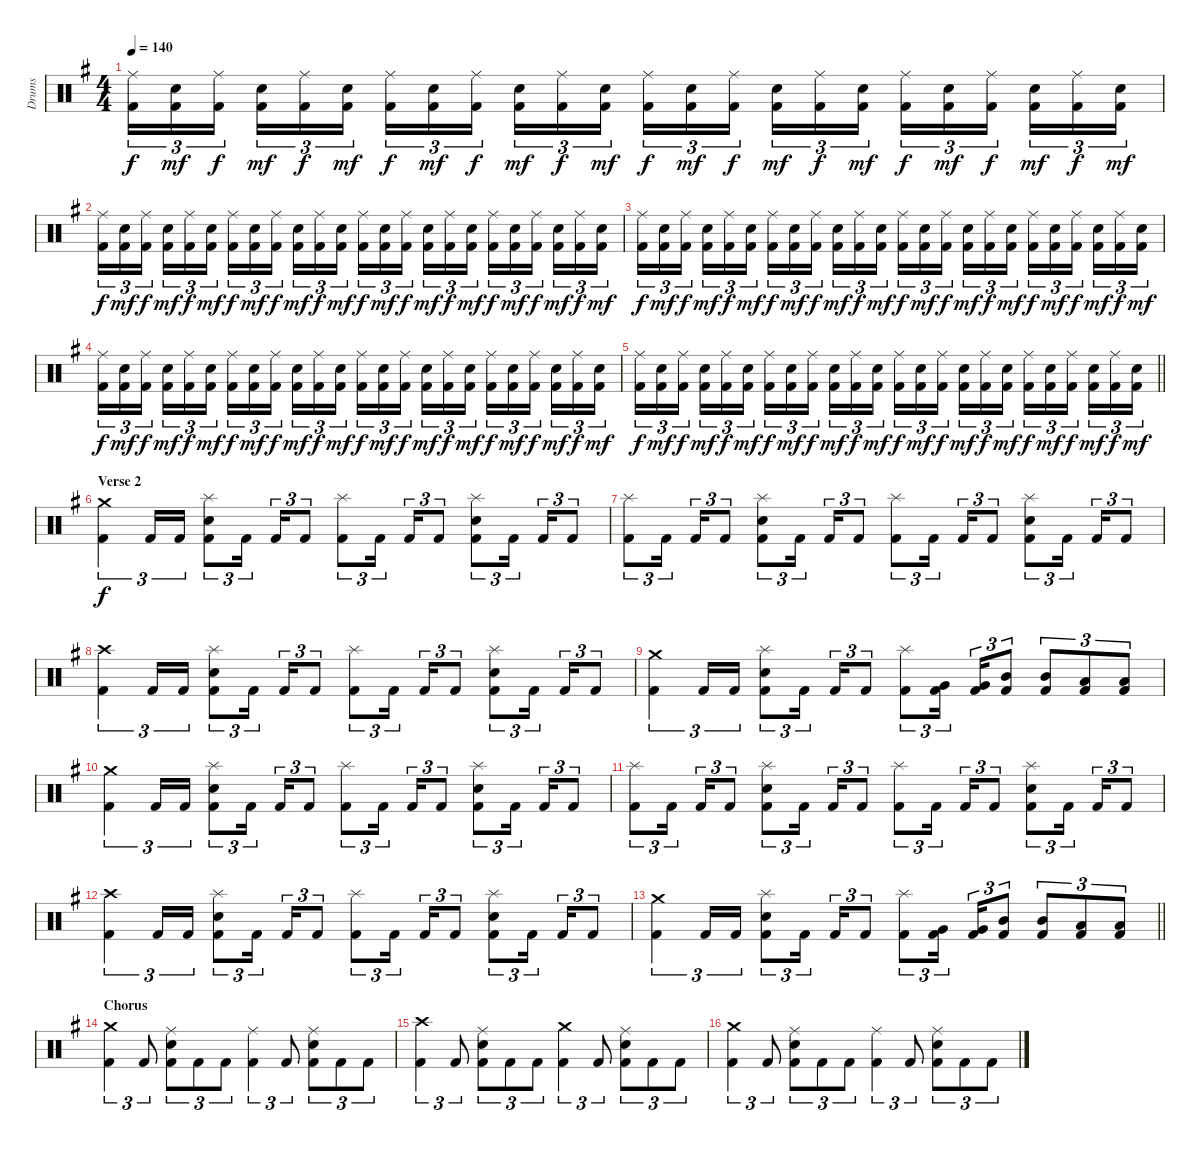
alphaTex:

\track ("Drums" "Drums") {instrument percussion}
\staff {score}
\articulation defaults
\ts (4 4)
\tempo 140
\clef neutral
\ks eminor
("Ride (middle)" "Kick (hit) 2").16{tu (3 2) dy f} ("Electric Snare (hit)" "Kick (hit) 2").16{tu (3 2) dy mf} ("Ride (middle)" "Kick (hit) 2").16{tu (3 2) dy f beam splitsecondary} ("Electric Snare (hit)" "Kick (hit) 2").16{tu (3 2) dy mf} ("Ride (middle)" "Kick (hit) 2").16{tu (3 2) dy f} ("Electric Snare (hit)" "Kick (hit) 2").16{tu (3 2) dy mf} ("Ride (middle)" "Kick (hit) 2").16{tu (3 2) dy f} ("Electric Snare (hit)" "Kick (hit) 2").16{tu (3 2) dy mf} ("Ride (middle)" "Kick (hit) 2").16{tu (3 2) dy f beam splitsecondary} ("Electric Snare (hit)" "Kick (hit) 2").16{tu (3 2) dy mf} ("Ride (middle)" "Kick (hit) 2").16{tu (3 2) dy f} ("Electric Snare (hit)" "Kick (hit) 2").16{tu (3 2) dy mf} ("Ride (middle)" "Kick (hit) 2").16{tu (3 2) dy f} ("Electric Snare (hit)" "Kick (hit) 2").16{tu (3 2) dy mf} ("Ride (middle)" "Kick (hit) 2").16{tu (3 2) dy f beam splitsecondary} ("Electric Snare (hit)" "Kick (hit) 2").16{tu (3 2) dy mf} ("Ride (middle)" "Kick (hit) 2").16{tu (3 2) dy f} ("Electric Snare (hit)" "Kick (hit) 2").16{tu (3 2) dy mf} ("Ride (middle)" "Kick (hit) 2").16{tu (3 2) dy f} ("Electric Snare (hit)" "Kick (hit) 2").16{tu (3 2) dy mf} ("Ride (middle)" "Kick (hit) 2").16{tu (3 2) dy f beam splitsecondary} ("Electric Snare (hit)" "Kick (hit) 2").16{tu (3 2) dy mf} ("Ride (middle)" "Kick (hit) 2").16{tu (3 2) dy f} ("Electric Snare (hit)" "Kick (hit) 2").16{tu (3 2) dy mf} |
("Ride (middle)" "Kick (hit) 2").16{tu (3 2) dy f} ("Electric Snare (hit)" "Kick (hit) 2").16{tu (3 2) dy mf} ("Ride (middle)" "Kick (hit) 2").16{tu (3 2) dy f beam splitsecondary} ("Electric Snare (hit)" "Kick (hit) 2").16{tu (3 2) dy mf} ("Ride (middle)" "Kick (hit) 2").16{tu (3 2) dy f} ("Electric Snare (hit)" "Kick (hit) 2").16{tu (3 2) dy mf} ("Ride (middle)" "Kick (hit) 2").16{tu (3 2) dy f} ("Electric Snare (hit)" "Kick (hit) 2").16{tu (3 2) dy mf} ("Ride (middle)" "Kick (hit) 2").16{tu (3 2) dy f beam splitsecondary} ("Electric Snare (hit)" "Kick (hit) 2").16{tu (3 2) dy mf} ("Ride (middle)" "Kick (hit) 2").16{tu (3 2) dy f} ("Electric Snare (hit)" "Kick (hit) 2").16{tu (3 2) dy mf} ("Ride (middle)" "Kick (hit) 2").16{tu (3 2) dy f} ("Electric Snare (hit)" "Kick (hit) 2").16{tu (3 2) dy mf} ("Ride (middle)" "Kick (hit) 2").16{tu (3 2) dy f beam splitsecondary} ("Electric Snare (hit)" "Kick (hit) 2").16{tu (3 2) dy mf} ("Ride (middle)" "Kick (hit) 2").16{tu (3 2) dy f} ("Electric Snare (hit)" "Kick (hit) 2").16{tu (3 2) dy mf} ("Ride (middle)" "Kick (hit) 2").16{tu (3 2) dy f} ("Electric Snare (hit)" "Kick (hit) 2").16{tu (3 2) dy mf} ("Ride (middle)" "Kick (hit) 2").16{tu (3 2) dy f beam splitsecondary} ("Electric Snare (hit)" "Kick (hit) 2").16{tu (3 2) dy mf} ("Ride (middle)" "Kick (hit) 2").16{tu (3 2) dy f} ("Electric Snare (hit)" "Kick (hit) 2").16{tu (3 2) dy mf} |
("Ride (middle)" "Kick (hit) 2").16{tu (3 2) dy f} ("Electric Snare (hit)" "Kick (hit) 2").16{tu (3 2) dy mf} ("Ride (middle)" "Kick (hit) 2").16{tu (3 2) dy f beam splitsecondary} ("Electric Snare (hit)" "Kick (hit) 2").16{tu (3 2) dy mf} ("Ride (middle)" "Kick (hit) 2").16{tu (3 2) dy f} ("Electric Snare (hit)" "Kick (hit) 2").16{tu (3 2) dy mf} ("Ride (middle)" "Kick (hit) 2").16{tu (3 2) dy f} ("Electric Snare (hit)" "Kick (hit) 2").16{tu (3 2) dy mf} ("Ride (middle)" "Kick (hit) 2").16{tu (3 2) dy f beam splitsecondary} ("Electric Snare (hit)" "Kick (hit) 2").16{tu (3 2) dy mf} ("Ride (middle)" "Kick (hit) 2").16{tu (3 2) dy f} ("Electric Snare (hit)" "Kick (hit) 2").16{tu (3 2) dy mf} ("Ride (middle)" "Kick (hit) 2").16{tu (3 2) dy f} ("Electric Snare (hit)" "Kick (hit) 2").16{tu (3 2) dy mf} ("Ride (middle)" "Kick (hit) 2").16{tu (3 2) dy f beam splitsecondary} ("Electric Snare (hit)" "Kick (hit) 2").16{tu (3 2) dy mf} ("Ride (middle)" "Kick (hit) 2").16{tu (3 2) dy f} ("Electric Snare (hit)" "Kick (hit) 2").16{tu (3 2) dy mf} ("Ride (middle)" "Kick (hit) 2").16{tu (3 2) dy f} ("Electric Snare (hit)" "Kick (hit) 2").16{tu (3 2) dy mf} ("Ride (middle)" "Kick (hit) 2").16{tu (3 2) dy f beam splitsecondary} ("Electric Snare (hit)" "Kick (hit) 2").16{tu (3 2) dy mf} ("Ride (middle)" "Kick (hit) 2").16{tu (3 2) dy f} ("Electric Snare (hit)" "Kick (hit) 2").16{tu (3 2) dy mf} |
("Ride (middle)" "Kick (hit) 2").16{tu (3 2) dy f} ("Electric Snare (hit)" "Kick (hit) 2").16{tu (3 2) dy mf} ("Ride (middle)" "Kick (hit) 2").16{tu (3 2) dy f beam splitsecondary} ("Electric Snare (hit)" "Kick (hit) 2").16{tu (3 2) dy mf} ("Ride (middle)" "Kick (hit) 2").16{tu (3 2) dy f} ("Electric Snare (hit)" "Kick (hit) 2").16{tu (3 2) dy mf} ("Ride (middle)" "Kick (hit) 2").16{tu (3 2) dy f} ("Electric Snare (hit)" "Kick (hit) 2").16{tu (3 2) dy mf} ("Ride (middle)" "Kick (hit) 2").16{tu (3 2) dy f beam splitsecondary} ("Electric Snare (hit)" "Kick (hit) 2").16{tu (3 2) dy mf} ("Ride (middle)" "Kick (hit) 2").16{tu (3 2) dy f} ("Electric Snare (hit)" "Kick (hit) 2").16{tu (3 2) dy mf} ("Ride (middle)" "Kick (hit) 2").16{tu (3 2) dy f} ("Electric Snare (hit)" "Kick (hit) 2").16{tu (3 2) dy mf} ("Ride (middle)" "Kick (hit) 2").16{tu (3 2) dy f beam splitsecondary} ("Electric Snare (hit)" "Kick (hit) 2").16{tu (3 2) dy mf} ("Ride (middle)" "Kick (hit) 2").16{tu (3 2) dy f} ("Electric Snare (hit)" "Kick (hit) 2").16{tu (3 2) dy mf} ("Ride (middle)" "Kick (hit) 2").16{tu (3 2) dy f} ("Electric Snare (hit)" "Kick (hit) 2").16{tu (3 2) dy mf} ("Ride (middle)" "Kick (hit) 2").16{tu (3 2) dy f beam splitsecondary} ("Electric Snare (hit)" "Kick (hit) 2").16{tu (3 2) dy mf} ("Ride (middle)" "Kick (hit) 2").16{tu (3 2) dy f} ("Electric Snare (hit)" "Kick (hit) 2").16{tu (3 2) dy mf} |
\barLineRight lightlight
("Ride (middle)" "Kick (hit) 2").16{tu (3 2) dy f} ("Electric Snare (hit)" "Kick (hit) 2").16{tu (3 2) dy mf} ("Ride (middle)" "Kick (hit) 2").16{tu (3 2) dy f beam splitsecondary} ("Electric Snare (hit)" "Kick (hit) 2").16{tu (3 2) dy mf} ("Ride (middle)" "Kick (hit) 2").16{tu (3 2) dy f} ("Electric Snare (hit)" "Kick (hit) 2").16{tu (3 2) dy mf} ("Ride (middle)" "Kick (hit) 2").16{tu (3 2) dy f} ("Electric Snare (hit)" "Kick (hit) 2").16{tu (3 2) dy mf} ("Ride (middle)" "Kick (hit) 2").16{tu (3 2) dy f beam splitsecondary} ("Electric Snare (hit)" "Kick (hit) 2").16{tu (3 2) dy mf} ("Ride (middle)" "Kick (hit) 2").16{tu (3 2) dy f} ("Electric Snare (hit)" "Kick (hit) 2").16{tu (3 2) dy mf} ("Ride (middle)" "Kick (hit) 2").16{tu (3 2) dy f} ("Electric Snare (hit)" "Kick (hit) 2").16{tu (3 2) dy mf} ("Ride (middle)" "Kick (hit) 2").16{tu (3 2) dy f beam splitsecondary} ("Electric Snare (hit)" "Kick (hit) 2").16{tu (3 2) dy mf} ("Ride (middle)" "Kick (hit) 2").16{tu (3 2) dy f} ("Electric Snare (hit)" "Kick (hit) 2").16{tu (3 2) dy mf} ("Ride (middle)" "Kick (hit) 2").16{tu (3 2) dy f} ("Electric Snare (hit)" "Kick (hit) 2").16{tu (3 2) dy mf} ("Ride (middle)" "Kick (hit) 2").16{tu (3 2) dy f beam splitsecondary} ("Electric Snare (hit)" "Kick (hit) 2").16{tu (3 2) dy mf} ("Ride (middle)" "Kick (hit) 2").16{tu (3 2) dy f} ("Electric Snare (hit)" "Kick (hit) 2").16{tu (3 2) dy mf} |
\section ("" "Verse 2")
("Crash medium (hit)" "Kick (hit) 2").4{tu (3 2) dy f} "Kick (hit) 2".16{tu (3 2)} "Kick (hit) 2".16{tu (3 2)} ("Splash (hit)" "Electric Snare (hit)" "Kick (hit) 2").8{tu (3 2)} "Kick (hit) 2".16{tu (3 2) beam splitsecondary} "Kick (hit) 2".16{tu (3 2)} "Kick (hit) 2".8{tu (3 2)} ("Splash (hit)" "Kick (hit) 2").8{tu (3 2)} "Kick (hit) 2".16{tu (3 2) beam splitsecondary} "Kick (hit) 2".16{tu (3 2)} "Kick (hit) 2".8{tu (3 2)} ("Splash (hit)" "Electric Snare (hit)" "Kick (hit) 2").8{tu (3 2)} "Kick (hit) 2".16{tu (3 2) beam splitsecondary} "Kick (hit) 2".16{tu (3 2)} "Kick (hit) 2".8{tu (3 2)} |
("Splash (hit)" "Kick (hit) 2").8{tu (3 2)} "Kick (hit) 2".16{tu (3 2) beam splitsecondary} "Kick (hit) 2".16{tu (3 2)} "Kick (hit) 2".8{tu (3 2)} ("Splash (hit)" "Electric Snare (hit)" "Kick (hit) 2").8{tu (3 2)} "Kick (hit) 2".16{tu (3 2) beam splitsecondary} "Kick (hit) 2".16{tu (3 2)} "Kick (hit) 2".8{tu (3 2)} ("Splash (hit)" "Kick (hit) 2").8{tu (3 2)} "Kick (hit) 2".16{tu (3 2) beam splitsecondary} "Kick (hit) 2".16{tu (3 2)} "Kick (hit) 2".8{tu (3 2)} ("Splash (hit)" "Electric Snare (hit)" "Kick (hit) 2").8{tu (3 2)} "Kick (hit) 2".16{tu (3 2) beam splitsecondary} "Kick (hit) 2".16{tu (3 2)} "Kick (hit) 2".8{tu (3 2)} |
("Crash high (hit)" "Kick (hit) 2").4{tu (3 2)} "Kick (hit) 2".16{tu (3 2)} "Kick (hit) 2".16{tu (3 2)} ("Splash (hit)" "Electric Snare (hit)" "Kick (hit) 2").8{tu (3 2)} "Kick (hit) 2".16{tu (3 2) beam splitsecondary} "Kick (hit) 2".16{tu (3 2)} "Kick (hit) 2".8{tu (3 2)} ("Splash (hit)" "Kick (hit) 2").8{tu (3 2)} "Kick (hit) 2".16{tu (3 2) beam splitsecondary} "Kick (hit) 2".16{tu (3 2)} "Kick (hit) 2".8{tu (3 2)} ("Splash (hit)" "Electric Snare (hit)" "Kick (hit) 2").8{tu (3 2)} "Kick (hit) 2".16{tu (3 2) beam splitsecondary} "Kick (hit) 2".16{tu (3 2)} "Kick (hit) 2".8{tu (3 2)} |
("Crash medium (hit)" "Kick (hit) 2").4{tu (3 2)} "Kick (hit) 2".16{tu (3 2)} "Kick (hit) 2".16{tu (3 2)} ("Splash (hit)" "Electric Snare (hit)" "Kick (hit) 2").8{tu (3 2)} "Kick (hit) 2".16{tu (3 2) beam splitsecondary} "Kick (hit) 2".16{tu (3 2)} "Kick (hit) 2".8{tu (3 2)} ("Splash (hit)" "Kick (hit) 2").8{tu (3 2)} ("Very Low Tom (hit)" "Kick (hit) 2").16{tu (3 2) beam splitsecondary} ("Very Low Tom (hit)" "Kick (hit) 2").16{tu (3 2)} ("Mid Tom (hit)" "Kick (hit) 2").8{tu (3 2)} ("Mid Tom (hit)" "Kick (hit) 2").8{tu (3 2)} ("Low Tom (hit)" "Kick (hit) 2").8{tu (3 2)} ("Low Tom (hit)" "Kick (hit) 2").8{tu (3 2)} |
("Crash medium (hit)" "Kick (hit) 2").4{tu (3 2)} "Kick (hit) 2".16{tu (3 2)} "Kick (hit) 2".16{tu (3 2)} ("Splash (hit)" "Electric Snare (hit)" "Kick (hit) 2").8{tu (3 2)} "Kick (hit) 2".16{tu (3 2) beam splitsecondary} "Kick (hit) 2".16{tu (3 2)} "Kick (hit) 2".8{tu (3 2)} ("Splash (hit)" "Kick (hit) 2").8{tu (3 2)} "Kick (hit) 2".16{tu (3 2) beam splitsecondary} "Kick (hit) 2".16{tu (3 2)} "Kick (hit) 2".8{tu (3 2)} ("Splash (hit)" "Electric Snare (hit)" "Kick (hit) 2").8{tu (3 2)} "Kick (hit) 2".16{tu (3 2) beam splitsecondary} "Kick (hit) 2".16{tu (3 2)} "Kick (hit) 2".8{tu (3 2)} |
("Splash (hit)" "Kick (hit) 2").8{tu (3 2)} "Kick (hit) 2".16{tu (3 2) beam splitsecondary} "Kick (hit) 2".16{tu (3 2)} "Kick (hit) 2".8{tu (3 2)} ("Splash (hit)" "Electric Snare (hit)" "Kick (hit) 2").8{tu (3 2)} "Kick (hit) 2".16{tu (3 2) beam splitsecondary} "Kick (hit) 2".16{tu (3 2)} "Kick (hit) 2".8{tu (3 2)} ("Splash (hit)" "Kick (hit) 2").8{tu (3 2)} "Kick (hit) 2".16{tu (3 2) beam splitsecondary} "Kick (hit) 2".16{tu (3 2)} "Kick (hit) 2".8{tu (3 2)} ("Splash (hit)" "Electric Snare (hit)" "Kick (hit) 2").8{tu (3 2)} "Kick (hit) 2".16{tu (3 2) beam splitsecondary} "Kick (hit) 2".16{tu (3 2)} "Kick (hit) 2".8{tu (3 2)} |
("Crash high (hit)" "Kick (hit) 2").4{tu (3 2)} "Kick (hit) 2".16{tu (3 2)} "Kick (hit) 2".16{tu (3 2)} ("Splash (hit)" "Electric Snare (hit)" "Kick (hit) 2").8{tu (3 2)} "Kick (hit) 2".16{tu (3 2) beam splitsecondary} "Kick (hit) 2".16{tu (3 2)} "Kick (hit) 2".8{tu (3 2)} ("Splash (hit)" "Kick (hit) 2").8{tu (3 2)} "Kick (hit) 2".16{tu (3 2) beam splitsecondary} "Kick (hit) 2".16{tu (3 2)} "Kick (hit) 2".8{tu (3 2)} ("Splash (hit)" "Electric Snare (hit)" "Kick (hit) 2").8{tu (3 2)} "Kick (hit) 2".16{tu (3 2) beam splitsecondary} "Kick (hit) 2".16{tu (3 2)} "Kick (hit) 2".8{tu (3 2)} |
\barLineRight lightlight
("Crash medium (hit)" "Kick (hit) 2").4{tu (3 2)} "Kick (hit) 2".16{tu (3 2)} "Kick (hit) 2".16{tu (3 2)} ("Splash (hit)" "Electric Snare (hit)" "Kick (hit) 2").8{tu (3 2)} "Kick (hit) 2".16{tu (3 2) beam splitsecondary} "Kick (hit) 2".16{tu (3 2)} "Kick (hit) 2".8{tu (3 2)} ("Splash (hit)" "Kick (hit) 2").8{tu (3 2)} ("Very Low Tom (hit)" "Kick (hit) 2").16{tu (3 2) beam splitsecondary} ("Very Low Tom (hit)" "Kick (hit) 2").16{tu (3 2)} ("Mid Tom (hit)" "Kick (hit) 2").8{tu (3 2)} ("Mid Tom (hit)" "Kick (hit) 2").8{tu (3 2)} ("Low Tom (hit)" "Kick (hit) 2").8{tu (3 2)} ("Low Tom (hit)" "Kick (hit) 2").8{tu (3 2)} |
\section ("" "Chorus")
("Crash medium (hit)" "Kick (hit) 2").4{tu (3 2)} "Kick (hit) 2".8{tu (3 2)} ("Ride (middle)" "Electric Snare (hit)" "Kick (hit) 2").8{tu (3 2)} "Kick (hit) 2".8{tu (3 2)} "Kick (hit) 2".8{tu (3 2)} ("Ride (middle)" "Kick (hit) 2").4{tu (3 2)} "Kick (hit) 2".8{tu (3 2)} ("Ride (middle)" "Electric Snare (hit)" "Kick (hit) 2").8{tu (3 2)} "Kick (hit) 2".8{tu (3 2)} "Kick (hit) 2".8{tu (3 2)} |
("Crash high (hit)" "Kick (hit) 2").4{tu (3 2)} "Kick (hit) 2".8{tu (3 2)} ("Ride (middle)" "Electric Snare (hit)" "Kick (hit) 2").8{tu (3 2)} "Kick (hit) 2".8{tu (3 2)} "Kick (hit) 2".8{tu (3 2)} ("Crash medium (hit)" "Kick (hit) 2").4{tu (3 2)} "Kick (hit) 2".8{tu (3 2)} ("Ride (middle)" "Electric Snare (hit)" "Kick (hit) 2").8{tu (3 2)} "Kick (hit) 2".8{tu (3 2)} "Kick (hit) 2".8{tu (3 2)} |
("Crash medium (hit)" "Kick (hit) 2").4{tu (3 2)} "Kick (hit) 2".8{tu (3 2)} ("Ride (middle)" "Electric Snare (hit)" "Kick (hit) 2").8{tu (3 2)} "Kick (hit) 2".8{tu (3 2)} "Kick (hit) 2".8{tu (3 2)} ("Ride (middle)" "Kick (hit) 2").4{tu (3 2)} "Kick (hit) 2".8{tu (3 2)} ("Ride (middle)" "Electric Snare (hit)" "Kick (hit) 2").8{tu (3 2)} "Kick (hit) 2".8{tu (3 2)} "Kick (hit) 2".8{tu (3 2)}
